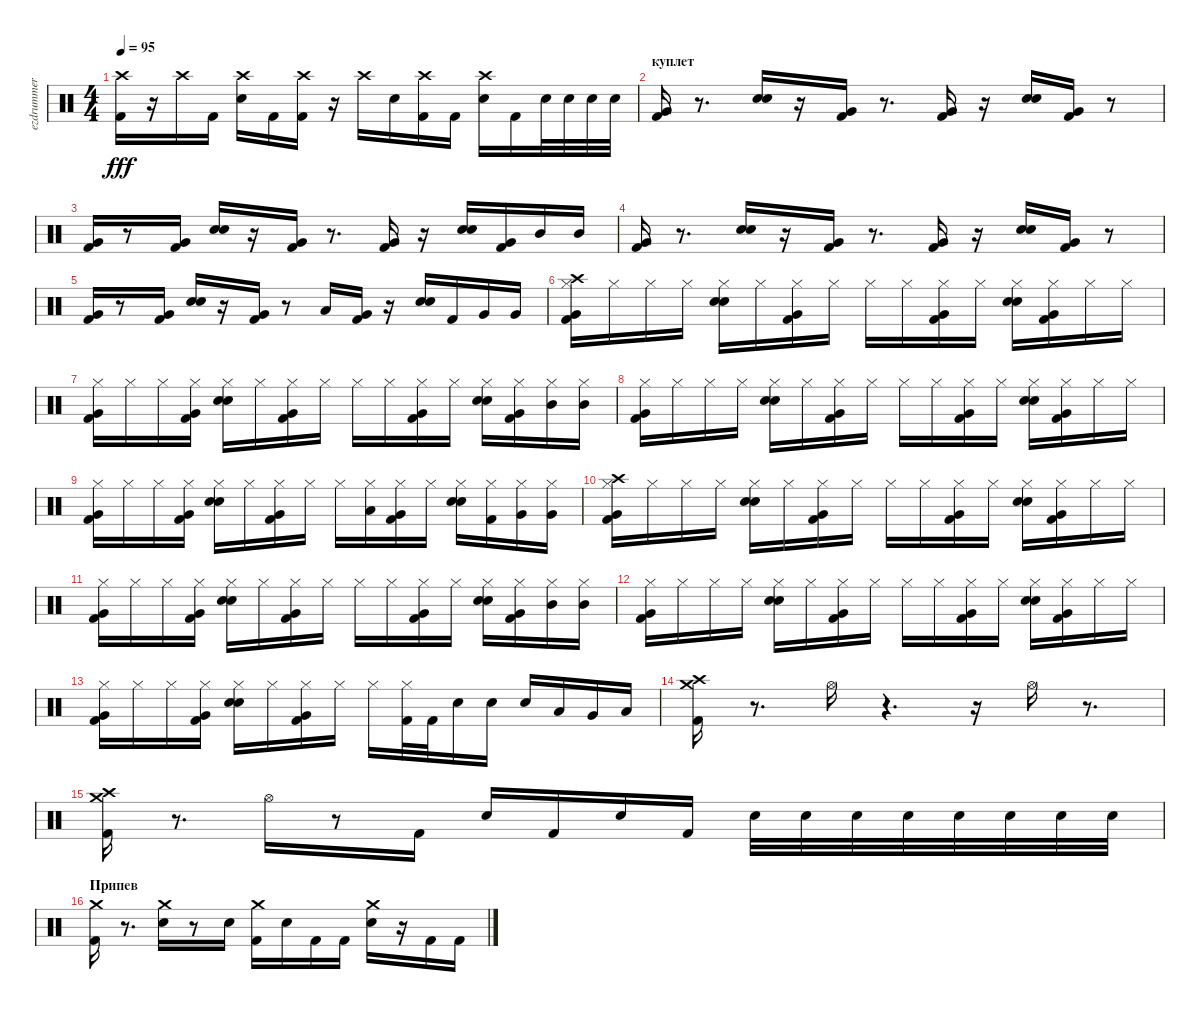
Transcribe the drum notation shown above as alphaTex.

\track ("ezdrummer 01" "ezdrummer ") {instrument percussion}
\staff {score}
\articulation defaults
\ts (4 4)
\tempo 95
\clef neutral
\ks c
("Kick (hit) 2" "Crash high (hit)").16{dy fff} r.16 "Crash high (hit)".16 "Kick (hit) 2".16 ("Snare (hit) 2" "Crash high (hit)").16 "Kick (hit) 2".16 ("Kick (hit) 2" "Crash high (hit)").16 r.16 "Crash high (hit)".16 "Snare (hit) 2".16 ("Kick (hit) 2" "Crash high (hit)").16 "Kick (hit) 2".16 ("Snare (hit) 2" "Crash high (hit)").16 "Kick (hit) 2".16 "Snare (hit) 2".32 "Snare (hit) 2".32 "Snare (hit) 2".32 "Snare (hit) 2".32 |
\section ("" "куплет")
("Kick (hit) 2" "Very Low Tom (hit)").16 r.8{d} ("Snare (hit) 2" "Snare (hit) 2").16 r.16 ("Kick (hit) 2" "Very Low Tom (hit)").16 r.8{d} ("Kick (hit) 2" "Very Low Tom (hit)").16 r.16 ("Snare (hit) 2" "Snare (hit) 2").16 ("Kick (hit) 2" "Very Low Tom (hit)").16 r.8 |
("Kick (hit) 2" "Very Low Tom (hit)").16 r.8 ("Kick (hit) 2" "Very Low Tom (hit)").16 ("Snare (hit) 2" "Snare (hit) 2").16 r.16 ("Kick (hit) 2" "Very Low Tom (hit)").16 r.8{d} ("Kick (hit) 2" "Very Low Tom (hit)").16 r.16 ("Snare (hit) 2" "Snare (hit) 2").16 ("Kick (hit) 2" "Very Low Tom (hit)").16 "Mid Tom (hit)".16 "Mid Tom (hit)".16 |
("Kick (hit) 2" "Very Low Tom (hit)").16 r.8{d} ("Snare (hit) 2" "Snare (hit) 2").16 r.16 ("Kick (hit) 2" "Very Low Tom (hit)").16 r.8{d} ("Kick (hit) 2" "Very Low Tom (hit)").16 r.16 ("Snare (hit) 2" "Snare (hit) 2").16 ("Kick (hit) 2" "Very Low Tom (hit)").16 r.8 |
("Kick (hit) 2" "Very Low Tom (hit)").16 r.8 ("Kick (hit) 2" "Very Low Tom (hit)").16 ("Snare (hit) 2" "Snare (hit) 2").16 r.16 ("Kick (hit) 2" "Very Low Tom (hit)").16 r.8 "Low Tom (hit)".16 ("Kick (hit) 2" "Very Low Tom (hit)").16 r.16 ("Snare (hit) 2" "Snare (hit) 2").16 "Kick (hit) 2".16 "Very Low Tom (hit)".16 "Very Low Tom (hit)".16 |
("Kick (hit) 2" "Hi-Hat (closed)" "Very Low Tom (hit)" "Crash high (hit)").16 "Hi-Hat (closed)".16 "Hi-Hat (closed)".16 "Hi-Hat (closed)".16 ("Snare (hit) 2" "Snare (hit) 2" "Hi-Hat (closed)").16 "Hi-Hat (closed)".16 ("Kick (hit) 2" "Hi-Hat (closed)" "Very Low Tom (hit)").16 "Hi-Hat (closed)".16 "Hi-Hat (closed)".16 "Hi-Hat (closed)".16 ("Kick (hit) 2" "Hi-Hat (closed)" "Very Low Tom (hit)").16 "Hi-Hat (closed)".16 ("Snare (hit) 2" "Snare (hit) 2" "Hi-Hat (closed)").16 ("Kick (hit) 2" "Hi-Hat (closed)" "Very Low Tom (hit)").16 "Hi-Hat (closed)".16 "Hi-Hat (closed)".16 |
("Hi-Hat (closed)" "Kick (hit) 2" "Very Low Tom (hit)").16 "Hi-Hat (closed)".16 "Hi-Hat (closed)".16 ("Hi-Hat (closed)" "Kick (hit) 2" "Very Low Tom (hit)").16 ("Snare (hit) 2" "Hi-Hat (closed)" "Snare (hit) 2").16 "Hi-Hat (closed)".16 ("Hi-Hat (closed)" "Kick (hit) 2" "Very Low Tom (hit)").16 "Hi-Hat (closed)".16 "Hi-Hat (closed)".16 "Hi-Hat (closed)".16 ("Hi-Hat (closed)" "Kick (hit) 2" "Very Low Tom (hit)").16 "Hi-Hat (closed)".16 ("Snare (hit) 2" "Hi-Hat (closed)" "Snare (hit) 2").16 ("Hi-Hat (closed)" "Kick (hit) 2" "Very Low Tom (hit)").16 ("Hi-Hat (closed)" "Mid Tom (hit)").16 ("Hi-Hat (closed)" "Mid Tom (hit)").16 |
("Kick (hit) 2" "Hi-Hat (closed)" "Very Low Tom (hit)").16 "Hi-Hat (closed)".16 "Hi-Hat (closed)".16 "Hi-Hat (closed)".16 ("Snare (hit) 2" "Snare (hit) 2" "Hi-Hat (closed)").16 "Hi-Hat (closed)".16 ("Kick (hit) 2" "Hi-Hat (closed)" "Very Low Tom (hit)").16 "Hi-Hat (closed)".16 "Hi-Hat (closed)".16 "Hi-Hat (closed)".16 ("Kick (hit) 2" "Hi-Hat (closed)" "Very Low Tom (hit)").16 "Hi-Hat (closed)".16 ("Snare (hit) 2" "Snare (hit) 2" "Hi-Hat (closed)").16 ("Kick (hit) 2" "Hi-Hat (closed)" "Very Low Tom (hit)").16 "Hi-Hat (closed)".16 "Hi-Hat (closed)".16 |
("Hi-Hat (closed)" "Kick (hit) 2" "Very Low Tom (hit)").16 "Hi-Hat (closed)".16 "Hi-Hat (closed)".16 ("Hi-Hat (closed)" "Kick (hit) 2" "Very Low Tom (hit)").16 ("Snare (hit) 2" "Hi-Hat (closed)" "Snare (hit) 2").16 "Hi-Hat (closed)".16 ("Hi-Hat (closed)" "Kick (hit) 2" "Very Low Tom (hit)").16 "Hi-Hat (closed)".16 "Hi-Hat (closed)".16 ("Hi-Hat (closed)" "Low Tom (hit)").16 ("Kick (hit) 2" "Hi-Hat (closed)" "Very Low Tom (hit)").16 "Hi-Hat (closed)".16 ("Snare (hit) 2" "Snare (hit) 2" "Hi-Hat (closed)").16 ("Kick (hit) 2" "Hi-Hat (closed)").16 ("Hi-Hat (closed)" "Very Low Tom (hit)").16 ("Hi-Hat (closed)" "Very Low Tom (hit)").16 |
("Kick (hit) 2" "Hi-Hat (closed)" "Very Low Tom (hit)" "Crash high (hit)").16 "Hi-Hat (closed)".16 "Hi-Hat (closed)".16 "Hi-Hat (closed)".16 ("Snare (hit) 2" "Snare (hit) 2" "Hi-Hat (closed)").16 "Hi-Hat (closed)".16 ("Kick (hit) 2" "Hi-Hat (closed)" "Very Low Tom (hit)").16 "Hi-Hat (closed)".16 "Hi-Hat (closed)".16 "Hi-Hat (closed)".16 ("Kick (hit) 2" "Hi-Hat (closed)" "Very Low Tom (hit)").16 "Hi-Hat (closed)".16 ("Snare (hit) 2" "Snare (hit) 2" "Hi-Hat (closed)").16 ("Kick (hit) 2" "Hi-Hat (closed)" "Very Low Tom (hit)").16 "Hi-Hat (closed)".16 "Hi-Hat (closed)".16 |
("Hi-Hat (closed)" "Kick (hit) 2" "Very Low Tom (hit)").16 "Hi-Hat (closed)".16 "Hi-Hat (closed)".16 ("Hi-Hat (closed)" "Kick (hit) 2" "Very Low Tom (hit)").16 ("Snare (hit) 2" "Hi-Hat (closed)" "Snare (hit) 2").16 "Hi-Hat (closed)".16 ("Hi-Hat (closed)" "Kick (hit) 2" "Very Low Tom (hit)").16 "Hi-Hat (closed)".16 "Hi-Hat (closed)".16 "Hi-Hat (closed)".16 ("Hi-Hat (closed)" "Kick (hit) 2" "Very Low Tom (hit)").16 "Hi-Hat (closed)".16 ("Snare (hit) 2" "Hi-Hat (closed)" "Snare (hit) 2").16 ("Hi-Hat (closed)" "Kick (hit) 2" "Very Low Tom (hit)").16 ("Hi-Hat (closed)" "Mid Tom (hit)").16 ("Hi-Hat (closed)" "Mid Tom (hit)").16 |
("Kick (hit) 2" "Hi-Hat (closed)" "Very Low Tom (hit)").16 "Hi-Hat (closed)".16 "Hi-Hat (closed)".16 "Hi-Hat (closed)".16 ("Snare (hit) 2" "Snare (hit) 2" "Hi-Hat (closed)").16 "Hi-Hat (closed)".16 ("Kick (hit) 2" "Hi-Hat (closed)" "Very Low Tom (hit)").16 "Hi-Hat (closed)".16 "Hi-Hat (closed)".16 "Hi-Hat (closed)".16 ("Kick (hit) 2" "Hi-Hat (closed)" "Very Low Tom (hit)").16 "Hi-Hat (closed)".16 ("Snare (hit) 2" "Snare (hit) 2" "Hi-Hat (closed)").16 ("Kick (hit) 2" "Hi-Hat (closed)" "Very Low Tom (hit)").16 "Hi-Hat (closed)".16 "Hi-Hat (closed)".16 |
("Hi-Hat (closed)" "Kick (hit) 2" "Very Low Tom (hit)").16 "Hi-Hat (closed)".16 "Hi-Hat (closed)".16 ("Hi-Hat (closed)" "Kick (hit) 2" "Very Low Tom (hit)").16 ("Snare (hit) 2" "Snare (hit) 2" "Hi-Hat (closed)").16 "Hi-Hat (closed)".16 ("Kick (hit) 2" "Hi-Hat (closed)" "Very Low Tom (hit)").16 "Hi-Hat (closed)".16 "Hi-Hat (closed)".16 ("Kick (hit) 2" "Hi-Hat (closed)").32 "Kick (hit) 2".32 "Snare (hit) 2".16 "Snare (hit) 2".16 "Snare (hit) 2".16 "Low Tom (hit)".16 "Very Low Tom (hit)".16 "Low Floor Tom (hit)".16 |
("Kick (hit) 2" "Crash high (hit)" "Crash medium (hit)").16 r.8{d} "Hi-Hat (open)".16 r.4{d} r.16 "Hi-Hat (open)".16 r.8{d} |
("Kick (hit) 2" "Crash high (hit)" "Crash medium (hit)").16 r.8{d} "Hi-Hat (open)".16 r.8 "Kick (hit) 2".16 "Snare (hit) 2".16 "Kick (hit) 2".16 "Snare (hit) 2".16 "Kick (hit) 2".16 "Snare (hit) 2".32 "Snare (hit) 2".32 "Snare (hit) 2".32 "Snare (hit) 2".32 "Snare (hit) 2".32 "Snare (hit) 2".32 "Snare (hit) 2".32 "Snare (hit) 2".32 |
\section ("" "Припев")
("Kick (hit) 2" "Crash medium (hit)").16 r.8{d} ("Snare (hit) 2" "Crash medium (hit)").16 r.8 "Snare (hit) 2".16 ("Kick (hit) 2" "Crash medium (hit)").16 "Snare (hit) 2".16 "Kick (hit) 2".16 "Kick (hit) 2".16 ("Snare (hit) 2" "Crash medium (hit)").16 r.16 "Kick (hit) 2".16 "Kick (hit) 2".16
